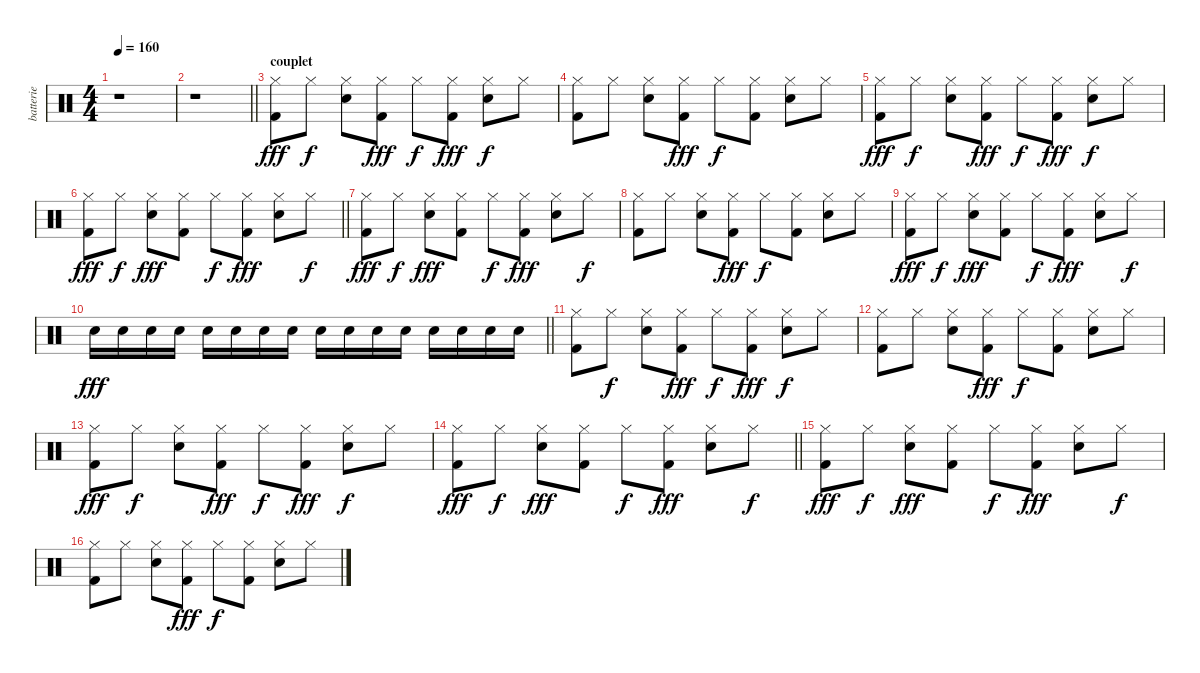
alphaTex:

\track ("batterie" "batterie") {instrument percussion}
\staff {score}
\articulation defaults
\ts (4 4)
\tempo 160
\clef neutral
\ks c
r.1{dy fff} |
\barLineRight lightlight
r.1 |
\section ("" "couplet")
("Hi-Hat (closed)" "Kick (hit) 2").8 "Hi-Hat (closed)".8{dy f} ("Hi-Hat (closed)" "Electric Snare (hit)").8 ("Hi-Hat (closed)" "Kick (hit) 2").8{dy fff} "Hi-Hat (closed)".8{dy f} ("Hi-Hat (closed)" "Kick (hit) 2").8{dy fff} ("Hi-Hat (closed)" "Electric Snare (hit)").8{dy f} "Hi-Hat (closed)".8 |
("Hi-Hat (closed)" "Kick (hit) 2").8 "Hi-Hat (closed)".8 ("Hi-Hat (closed)" "Electric Snare (hit)").8 ("Hi-Hat (closed)" "Kick (hit) 2").8{dy fff} "Hi-Hat (closed)".8{dy f} ("Hi-Hat (closed)" "Kick (hit) 2").8 ("Hi-Hat (closed)" "Electric Snare (hit)").8 "Hi-Hat (closed)".8 |
("Hi-Hat (closed)" "Kick (hit) 2").8{dy fff} "Hi-Hat (closed)".8{dy f} ("Hi-Hat (closed)" "Electric Snare (hit)").8 ("Hi-Hat (closed)" "Kick (hit) 2").8{dy fff} "Hi-Hat (closed)".8{dy f} ("Hi-Hat (closed)" "Kick (hit) 2").8{dy fff} ("Hi-Hat (closed)" "Electric Snare (hit)").8{dy f} "Hi-Hat (closed)".8 |
\barLineRight lightlight
("Hi-Hat (closed)" "Kick (hit) 2").8{dy fff} "Hi-Hat (closed)".8{dy f} ("Hi-Hat (closed)" "Electric Snare (hit)").8{dy fff} ("Hi-Hat (closed)" "Kick (hit) 2").8 "Hi-Hat (closed)".8{dy f} ("Hi-Hat (closed)" "Kick (hit) 2").8{dy fff} ("Hi-Hat (closed)" "Electric Snare (hit)").8 "Hi-Hat (closed)".8{dy f} |
("Hi-Hat (closed)" "Kick (hit) 2").8{dy fff} "Hi-Hat (closed)".8{dy f} ("Hi-Hat (closed)" "Electric Snare (hit)").8{dy fff} ("Hi-Hat (closed)" "Kick (hit) 2").8 "Hi-Hat (closed)".8{dy f} ("Hi-Hat (closed)" "Kick (hit) 2").8{dy fff} ("Hi-Hat (closed)" "Electric Snare (hit)").8 "Hi-Hat (closed)".8{dy f} |
("Hi-Hat (closed)" "Kick (hit) 2").8 "Hi-Hat (closed)".8 ("Hi-Hat (closed)" "Electric Snare (hit)").8 ("Hi-Hat (closed)" "Kick (hit) 2").8{dy fff} "Hi-Hat (closed)".8{dy f} ("Hi-Hat (closed)" "Kick (hit) 2").8 ("Hi-Hat (closed)" "Electric Snare (hit)").8 "Hi-Hat (closed)".8 |
("Hi-Hat (closed)" "Kick (hit) 2").8{dy fff} "Hi-Hat (closed)".8{dy f} ("Hi-Hat (closed)" "Electric Snare (hit)").8{dy fff} ("Hi-Hat (closed)" "Kick (hit) 2").8 "Hi-Hat (closed)".8{dy f} ("Hi-Hat (closed)" "Kick (hit) 2").8{dy fff} ("Hi-Hat (closed)" "Electric Snare (hit)").8 "Hi-Hat (closed)".8{dy f} |
\barLineRight lightlight "Electric Snare (hit)".16{dy fff} "Electric Snare (hit)".16 "Electric Snare (hit)".16 "Electric Snare (hit)".16 "Electric Snare (hit)".16 "Electric Snare (hit)".16 "Electric Snare (hit)".16 "Electric Snare (hit)".16 "Electric Snare (hit)".16 "Electric Snare (hit)".16 "Electric Snare (hit)".16 "Electric Snare (hit)".16 "Electric Snare (hit)".16 "Electric Snare (hit)".16 "Electric Snare (hit)".16 "Electric Snare (hit)".16
|
("Hi-Hat (closed)" "Kick (hit) 2").8 "Hi-Hat (closed)".8{dy f} ("Hi-Hat (closed)" "Electric Snare (hit)").8 ("Hi-Hat (closed)" "Kick (hit) 2").8{dy fff} "Hi-Hat (closed)".8{dy f} ("Hi-Hat (closed)" "Kick (hit) 2").8{dy fff} ("Hi-Hat (closed)" "Electric Snare (hit)").8{dy f} "Hi-Hat (closed)".8 |
("Hi-Hat (closed)" "Kick (hit) 2").8 "Hi-Hat (closed)".8 ("Hi-Hat (closed)" "Electric Snare (hit)").8 ("Hi-Hat (closed)" "Kick (hit) 2").8{dy fff} "Hi-Hat (closed)".8{dy f} ("Hi-Hat (closed)" "Kick (hit) 2").8 ("Hi-Hat (closed)" "Electric Snare (hit)").8 "Hi-Hat (closed)".8 |
("Hi-Hat (closed)" "Kick (hit) 2").8{dy fff} "Hi-Hat (closed)".8{dy f} ("Hi-Hat (closed)" "Electric Snare (hit)").8 ("Hi-Hat (closed)" "Kick (hit) 2").8{dy fff} "Hi-Hat (closed)".8{dy f} ("Hi-Hat (closed)" "Kick (hit) 2").8{dy fff} ("Hi-Hat (closed)" "Electric Snare (hit)").8{dy f} "Hi-Hat (closed)".8 |
\barLineRight lightlight
("Hi-Hat (closed)" "Kick (hit) 2").8{dy fff} "Hi-Hat (closed)".8{dy f} ("Hi-Hat (closed)" "Electric Snare (hit)").8{dy fff} ("Hi-Hat (closed)" "Kick (hit) 2").8 "Hi-Hat (closed)".8{dy f} ("Hi-Hat (closed)" "Kick (hit) 2").8{dy fff} ("Hi-Hat (closed)" "Electric Snare (hit)").8 "Hi-Hat (closed)".8{dy f} |
("Hi-Hat (closed)" "Kick (hit) 2").8{dy fff} "Hi-Hat (closed)".8{dy f} ("Hi-Hat (closed)" "Electric Snare (hit)").8{dy fff} ("Hi-Hat (closed)" "Kick (hit) 2").8 "Hi-Hat (closed)".8{dy f} ("Hi-Hat (closed)" "Kick (hit) 2").8{dy fff} ("Hi-Hat (closed)" "Electric Snare (hit)").8 "Hi-Hat (closed)".8{dy f} |
("Hi-Hat (closed)" "Kick (hit) 2").8 "Hi-Hat (closed)".8 ("Hi-Hat (closed)" "Electric Snare (hit)").8 ("Hi-Hat (closed)" "Kick (hit) 2").8{dy fff} "Hi-Hat (closed)".8{dy f} ("Hi-Hat (closed)" "Kick (hit) 2").8 ("Hi-Hat (closed)" "Electric Snare (hit)").8 "Hi-Hat (closed)".8
